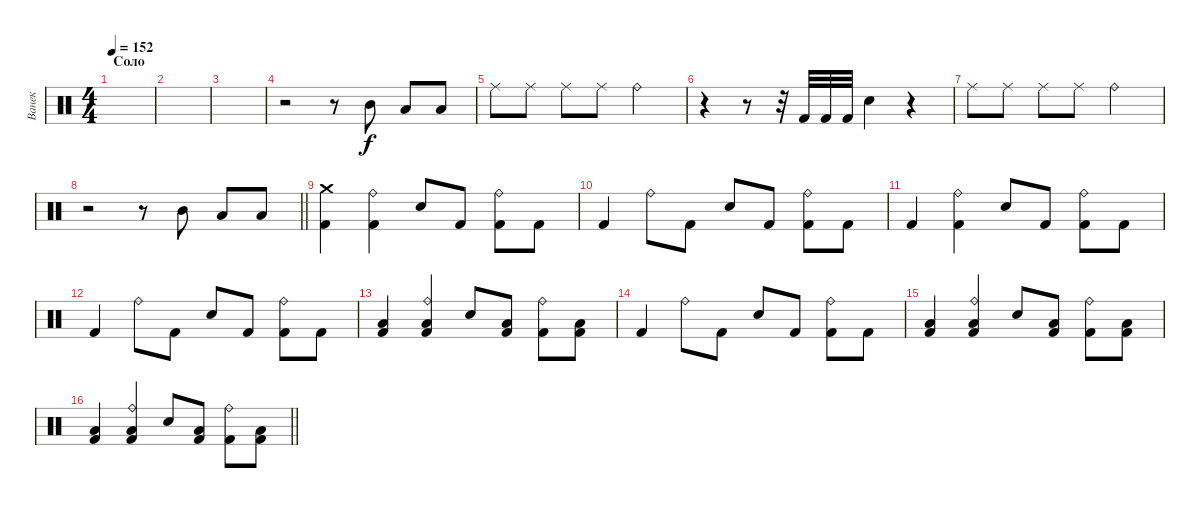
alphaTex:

\track ("Ванек" "Ванек") {instrument percussion}
\staff {score}
\articulation defaults
\ts (4 4)
\section ("" "Соло")
\tempo 152
\clef neutral
\ks c
|
|
|
r.2 r.8 "Mid Tom (hit)".8 "Low Tom (hit)".8 "Low Floor Tom (hit)".8 |
"Ride (middle)".8 "Ride (middle)".8 "Ride (middle)".8 "Ride (middle)".8 "Ride (bell)".2 |
r.4 r.8 r.32 "Kick (hit) 2".32 "Kick (hit) 2".32 "Kick (hit) 2".32 "Electric Snare (hit)".4 r.4 |
"Ride (middle)".8 "Ride (middle)".8 "Ride (middle)".8 "Ride (middle)".8 "Ride (bell)".2 |
\barLineRight lightlight
r.2 r.8 "Mid Tom (hit)".8 "Low Tom (hit)".8 "Low Floor Tom (hit)".8 |
("Crash medium (hit)" "Kick (hit) 2").4 ("Ride (bell)" "Kick (hit) 2").4 "Electric Snare (hit)".8 "Kick (hit) 2".8 ("Ride (bell)" "Kick (hit) 2").8 "Kick (hit) 2".8 |
"Kick (hit) 2".4 "Ride (bell)".8 "Kick (hit) 2".8 "Electric Snare (hit)".8 "Kick (hit) 2".8 ("Ride (bell)" "Kick (hit) 2").8 "Kick (hit) 2".8 |
"Kick (hit) 2".4 ("Ride (bell)" "Kick (hit) 2").4 "Electric Snare (hit)".8 "Kick (hit) 2".8 ("Ride (bell)" "Kick (hit) 2").8 "Kick (hit) 2".8 |
"Kick (hit) 2".4 "Ride (bell)".8 "Kick (hit) 2".8 "Electric Snare (hit)".8 "Kick (hit) 2".8 ("Ride (bell)" "Kick (hit) 2").8 "Kick (hit) 2".8 |
("Low Floor Tom (hit)" "Kick (hit) 2").4 ("Ride (bell)" "Low Floor Tom (hit)" "Kick (hit) 2").4 "Electric Snare (hit)".8 ("Low Floor Tom (hit)" "Kick (hit) 2").8 ("Ride (bell)" "Kick (hit) 2").8 ("Low Floor Tom (hit)" "Kick (hit) 2").8 |
"Kick (hit) 2".4 "Ride (bell)".8 "Kick (hit) 2".8 "Electric Snare (hit)".8 "Kick (hit) 2".8 ("Ride (bell)" "Kick (hit) 2").8 "Kick (hit) 2".8 |
("Low Floor Tom (hit)" "Kick (hit) 2").4 ("Ride (bell)" "Low Floor Tom (hit)" "Kick (hit) 2").4 "Electric Snare (hit)".8 ("Low Floor Tom (hit)" "Kick (hit) 2").8 ("Ride (bell)" "Kick (hit) 2").8 ("Low Floor Tom (hit)" "Kick (hit) 2").8 |
\barLineRight lightlight
("Low Floor Tom (hit)" "Kick (hit) 2").4 ("Ride (bell)" "Low Floor Tom (hit)" "Kick (hit) 2").4 "Electric Snare (hit)".8 ("Low Floor Tom (hit)" "Kick (hit) 2").8 ("Ride (bell)" "Kick (hit) 2").8 ("Low Floor Tom (hit)" "Kick (hit) 2").8
